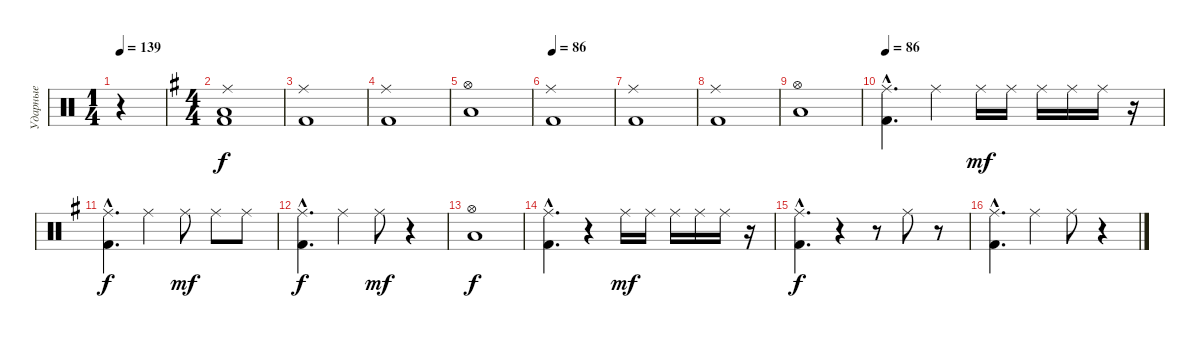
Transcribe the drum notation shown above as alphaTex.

\track ("Ударные" "Ударные") {instrument percussion}
\staff {score}
\articulation defaults
\ts (1 4)
\tempo 139
\tempo 86
\tempo 139
\clef neutral
\ks c
r.4{dy f} |
\ts (4 4)
\ks eminor
("Kick (hit) 2" "Ride (middle)" "Low Tom (hit)").1{volume 11} |
("Kick (hit) 2" "Ride (middle)").1 |
("Kick (hit) 2" "Ride (middle)").1 |
("Hi-Hat (open)" "Low Tom (hit)").1 |
\tempo 86
("Kick (hit) 2" "Ride (middle)").1 |
("Kick (hit) 2" "Ride (middle)").1 |
("Kick (hit) 2" "Ride (middle)").1 |
("Hi-Hat (open)" "Low Tom (hit)").1 |
\tempo 86
("Kick (hit) 2"{hac} "Ride (middle)"{hac}).4{d} "Ride (middle)".4 "Ride (middle)".16{dy mf} "Ride (middle)".16 "Ride (middle)".16 "Ride (middle)".16 "Ride (middle)".16 r.16 |
("Kick (hit) 2"{hac} "Ride (middle)"{hac}).4{d dy f} "Ride (middle)".4 "Ride (middle)".8{dy mf} "Ride (middle)".8 "Ride (middle)".8 |
("Kick (hit) 2"{hac} "Ride (middle)"{hac}).4{d dy f} "Ride (middle)".4 "Ride (middle)".8{dy mf} r.4 |
("Hi-Hat (open)" "Low Tom (hit)").1{dy f} |
("Kick (hit) 2"{hac} "Ride (middle)"{hac}).4{d} r.4 "Ride (middle)".16{dy mf} "Ride (middle)".16 "Ride (middle)".16 "Ride (middle)".16 "Ride (middle)".16 r.16 |
("Kick (hit) 2"{hac} "Ride (middle)"{hac}).4{d dy f} r.4 r.8 "Ride (middle)".8 r.8 |
("Kick (hit) 2"{hac} "Ride (middle)"{hac}).4{d} "Ride (middle)".4 "Ride (middle)".8 r.4
